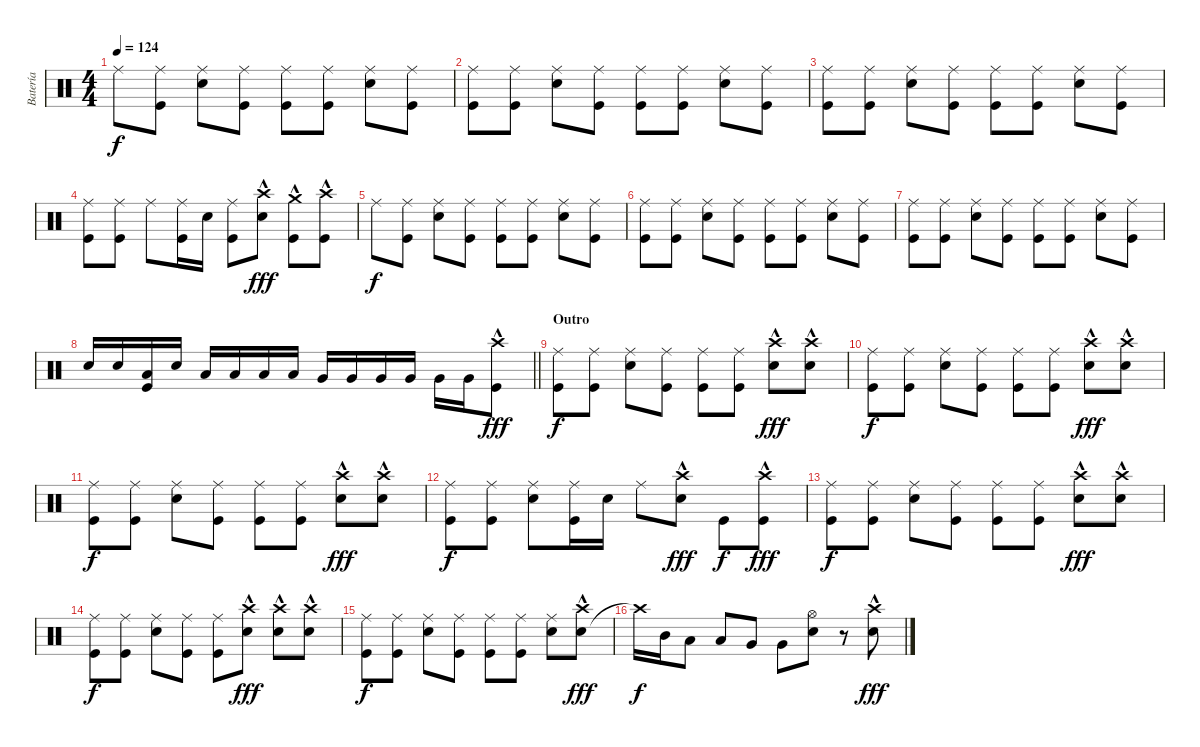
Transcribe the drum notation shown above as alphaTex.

\track ("Batería" "Batería") {instrument percussion}
\staff {score}
\articulation defaults
\ts (4 4)
\tempo 124
\clef neutral
\ks c "Ride (middle)".8{dy f}
("Ride (middle)" "Kick (hit)").8 ("Ride (middle)" "Snare (hit) 2").8 ("Ride (middle)" "Kick (hit)").8 ("Ride (middle)" "Kick (hit)").8 ("Ride (middle)" "Kick (hit)").8 ("Ride (middle)" "Snare (hit) 2").8 ("Ride (middle)" "Kick (hit)").8 |
("Ride (middle)" "Kick (hit)").8 ("Ride (middle)" "Kick (hit)").8 ("Ride (middle)" "Snare (hit) 2").8 ("Ride (middle)" "Kick (hit)").8 ("Ride (middle)" "Kick (hit)").8 ("Ride (middle)" "Kick (hit)").8 ("Ride (middle)" "Snare (hit) 2").8 ("Ride (middle)" "Kick (hit)").8 |
("Ride (middle)" "Kick (hit)").8 ("Ride (middle)" "Kick (hit)").8 ("Ride (middle)" "Snare (hit) 2").8 ("Ride (middle)" "Kick (hit)").8 ("Ride (middle)" "Kick (hit)").8 ("Ride (middle)" "Kick (hit)").8 ("Ride (middle)" "Snare (hit) 2").8 ("Ride (middle)" "Kick (hit)").8 |
("Kick (hit)" "Ride (middle)").8 ("Ride (middle)" "Kick (hit)").8 "Ride (middle)".8 ("Ride (middle)" "Kick (hit)").16 "Snare (hit) 2".16 ("Kick (hit)" "Ride (middle)").8 ("Snare (hit) 2" "Crash high (hit)"{hac}).8{dy fff} ("Kick (hit)" "Crash medium (hit)"{hac}).8 ("Kick (hit)" "Crash high (hit)"{hac}).8 |
"Ride (middle)".8{dy f} ("Ride (middle)" "Kick (hit)").8 ("Ride (middle)" "Snare (hit) 2").8 ("Ride (middle)" "Kick (hit)").8 ("Ride (middle)" "Kick (hit)").8 ("Ride (middle)" "Kick (hit)").8 ("Ride (middle)" "Snare (hit) 2").8 ("Ride (middle)" "Kick (hit)").8 |
("Ride (middle)" "Kick (hit)").8 ("Ride (middle)" "Kick (hit)").8 ("Ride (middle)" "Snare (hit) 2").8 ("Ride (middle)" "Kick (hit)").8 ("Ride (middle)" "Kick (hit)").8 ("Ride (middle)" "Kick (hit)").8 ("Ride (middle)" "Snare (hit) 2").8 ("Ride (middle)" "Kick (hit)").8 |
("Ride (middle)" "Kick (hit)").8 ("Ride (middle)" "Kick (hit)").8 ("Ride (middle)" "Snare (hit) 2").8 ("Ride (middle)" "Kick (hit)").8 ("Ride (middle)" "Kick (hit)").8 ("Ride (middle)" "Kick (hit)").8 ("Ride (middle)" "Snare (hit) 2").8 ("Ride (middle)" "Kick (hit)").8 |
\barLineRight lightlight "Snare (hit) 2".16 "Snare (hit) 2".16
("Low Tom (hit)" "Kick (hit)").16 "Snare (hit) 2".16 "Low Tom (hit)".16 "Low Tom (hit)".16 "Low Tom (hit)".16 "Low Tom (hit)".16 "Very Low Tom (hit)".16 "Very Low Tom (hit)".16 "Very Low Tom (hit)".16 "Very Low Tom (hit)".16 "Very Low Tom (hit)".16 "Very Low Tom (hit)".16 ("Kick (hit)" "Crash high (hit)"{hac}).8{dy fff} |
\section ("" "Outro")
("Ride (middle)" "Kick (hit)").8{dy f} ("Ride (middle)" "Kick (hit)").8 ("Ride (middle)" "Snare (hit) 2").8 ("Ride (middle)" "Kick (hit)").8 ("Ride (middle)" "Kick (hit)").8 ("Ride (middle)" "Kick (hit)").8 ("Snare (hit) 2" "Crash high (hit)"{hac}).8{dy fff} ("Snare (hit) 2" "Crash high (hit)"{hac}).8 |
("Ride (middle)" "Kick (hit)").8{dy f} ("Ride (middle)" "Kick (hit)").8 ("Ride (middle)" "Snare (hit) 2").8 ("Ride (middle)" "Kick (hit)").8 ("Ride (middle)" "Kick (hit)").8 ("Ride (middle)" "Kick (hit)").8 ("Snare (hit) 2" "Crash high (hit)"{hac}).8{dy fff} ("Snare (hit) 2" "Crash high (hit)"{hac}).8 |
("Ride (middle)" "Kick (hit)").8{dy f} ("Ride (middle)" "Kick (hit)").8 ("Ride (middle)" "Snare (hit) 2").8 ("Ride (middle)" "Kick (hit)").8 ("Ride (middle)" "Kick (hit)").8 ("Ride (middle)" "Kick (hit)").8 ("Snare (hit) 2" "Crash high (hit)"{hac}).8{dy fff} ("Snare (hit) 2" "Crash high (hit)"{hac}).8 |
("Ride (middle)" "Kick (hit)").8{dy f} ("Ride (middle)" "Kick (hit)").8 ("Ride (middle)" "Snare (hit) 2").8 ("Ride (middle)" "Kick (hit)").16 "Snare (hit) 2".16 "Ride (middle)".8 ("Snare (hit) 2" "Crash high (hit)"{hac}).8{dy fff} "Kick (hit)".8{dy f} ("Kick (hit)" "Crash high (hit)"{hac}).8{dy fff} |
("Ride (middle)" "Kick (hit)").8{dy f} ("Ride (middle)" "Kick (hit)").8 ("Ride (middle)" "Snare (hit) 2").8 ("Ride (middle)" "Kick (hit)").8 ("Ride (middle)" "Kick (hit)").8 ("Ride (middle)" "Kick (hit)").8 ("Snare (hit) 2" "Crash high (hit)"{hac}).8{dy fff} ("Snare (hit) 2" "Crash high (hit)"{hac}).8 |
("Ride (middle)" "Kick (hit)").8{dy f} ("Ride (middle)" "Kick (hit)").8 ("Ride (middle)" "Snare (hit) 2").8 ("Ride (middle)" "Kick (hit)").8 ("Ride (middle)" "Kick (hit)").8 ("Crash high (hit)"{hac} "Snare (hit) 2").8{dy fff} ("Snare (hit) 2" "Crash high (hit)"{hac}).8 ("Snare (hit) 2" "Crash high (hit)"{hac}).8 |
("Ride (middle)" "Kick (hit)").8{dy f} ("Ride (middle)" "Kick (hit)").8 ("Ride (middle)" "Snare (hit) 2").8 ("Ride (middle)" "Kick (hit)").8 ("Ride (middle)" "Kick (hit)").8 ("Ride (middle)" "Kick (hit)").8 ("Snare (hit) 2" "Ride (middle)").8 ("Snare (hit) 2" "Crash high (hit)"{hac}).8{dy fff} |
"Crash high (hit)"{t}.16{dy f} "Mid Tom (hit)".16 "Low Tom (hit)".8 "Low Tom (hit)".8 "Very Low Tom (hit)".8 "Very Low Tom (hit)".8 ("Snare (hit) 2" "Hi-Hat (open)").8 r.8 ("Snare (hit) 2" "Crash high (hit)"{hac}).8{dy fff}
